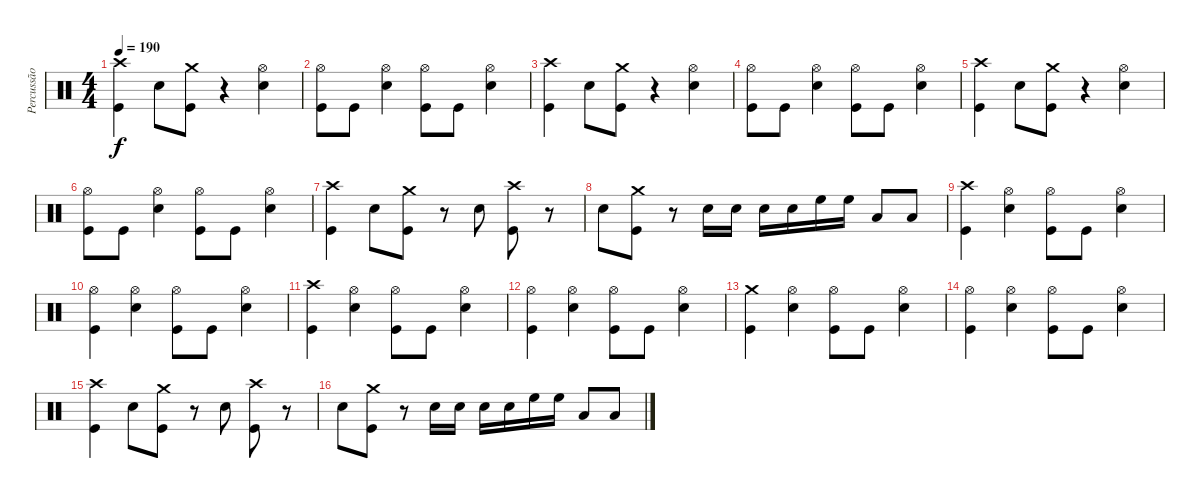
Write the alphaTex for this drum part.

\track ("Percussão" "Percussão") {instrument percussion}
\staff {score}
\articulation defaults
\ts (4 4)
\tempo 190
\clef neutral
\ks c
("Crash high (hit)" "Kick (hit)").4{dy f} "Snare (hit) 2".8 ("Crash medium (hit)" "Kick (hit)").8 r.4 ("Hi-Hat (open)" "Snare (hit) 2").4 |
("Hi-Hat (open)" "Kick (hit)").8 "Kick (hit)".8 ("Hi-Hat (open)" "Snare (hit) 2").4 ("Hi-Hat (open)" "Kick (hit)").8 "Kick (hit)".8 ("Hi-Hat (open)" "Snare (hit) 2").4 |
("Crash high (hit)" "Kick (hit)").4 "Snare (hit) 2".8 ("Crash medium (hit)" "Kick (hit)").8 r.4 ("Hi-Hat (open)" "Snare (hit) 2").4 |
("Hi-Hat (open)" "Kick (hit)").8 "Kick (hit)".8 ("Hi-Hat (open)" "Snare (hit) 2").4 ("Hi-Hat (open)" "Kick (hit)").8 "Kick (hit)".8 ("Hi-Hat (open)" "Snare (hit) 2").4 |
("Crash high (hit)" "Kick (hit)").4 "Snare (hit) 2".8 ("Crash medium (hit)" "Kick (hit)").8 r.4 ("Hi-Hat (open)" "Snare (hit) 2").4 |
("Hi-Hat (open)" "Kick (hit)").8 "Kick (hit)".8 ("Hi-Hat (open)" "Snare (hit) 2").4 ("Hi-Hat (open)" "Kick (hit)").8 "Kick (hit)".8 ("Hi-Hat (open)" "Snare (hit) 2").4 |
("Crash high (hit)" "Kick (hit)").4 "Snare (hit) 2".8 ("Crash medium (hit)" "Kick (hit)").8 r.8 "Snare (hit) 2".8 ("Crash high (hit)" "Kick (hit)").8 r.8 |
"Snare (hit) 2".8 ("Crash medium (hit)" "Kick (hit)").8 r.8 "Snare (hit) 2".16 "Snare (hit) 2".16 "Snare (hit) 2".16 "Snare (hit) 2".16 "High Floor Tom (hit)".16 "High Floor Tom (hit)".16 "Low Floor Tom (hit)".8 "Low Floor Tom (hit)".8 |
("Crash high (hit)" "Kick (hit)").4 ("Hi-Hat (open)" "Snare (hit) 2").4 ("Hi-Hat (open)" "Kick (hit)").8 "Kick (hit)".8 ("Hi-Hat (open)" "Snare (hit) 2").4 |
("Hi-Hat (open)" "Kick (hit)").4 ("Hi-Hat (open)" "Snare (hit) 2").4 ("Hi-Hat (open)" "Kick (hit)").8 "Kick (hit)".8 ("Hi-Hat (open)" "Snare (hit) 2").4 |
("Crash high (hit)" "Kick (hit)").4 ("Hi-Hat (open)" "Snare (hit) 2").4 ("Hi-Hat (open)" "Kick (hit)").8 "Kick (hit)".8 ("Hi-Hat (open)" "Snare (hit) 2").4 |
("Hi-Hat (open)" "Kick (hit)").4 ("Hi-Hat (open)" "Snare (hit) 2").4 ("Hi-Hat (open)" "Kick (hit)").8 "Kick (hit)".8 ("Hi-Hat (open)" "Snare (hit) 2").4 |
("Crash medium (hit)" "Kick (hit)").4 ("Hi-Hat (open)" "Snare (hit) 2").4 ("Hi-Hat (open)" "Kick (hit)").8 "Kick (hit)".8 ("Hi-Hat (open)" "Snare (hit) 2").4 |
("Hi-Hat (open)" "Kick (hit)").4 ("Hi-Hat (open)" "Snare (hit) 2").4 ("Hi-Hat (open)" "Kick (hit)").8 "Kick (hit)".8 ("Hi-Hat (open)" "Snare (hit) 2").4 |
("Crash high (hit)" "Kick (hit)").4 "Snare (hit) 2".8 ("Crash medium (hit)" "Kick (hit)").8 r.8 "Snare (hit) 2".8 ("Crash high (hit)" "Kick (hit)").8 r.8 |
"Snare (hit) 2".8 ("Crash medium (hit)" "Kick (hit)").8 r.8 "Snare (hit) 2".16 "Snare (hit) 2".16 "Snare (hit) 2".16 "Snare (hit) 2".16 "High Floor Tom (hit)".16 "High Floor Tom (hit)".16 "Low Floor Tom (hit)".8 "Low Floor Tom (hit)".8
